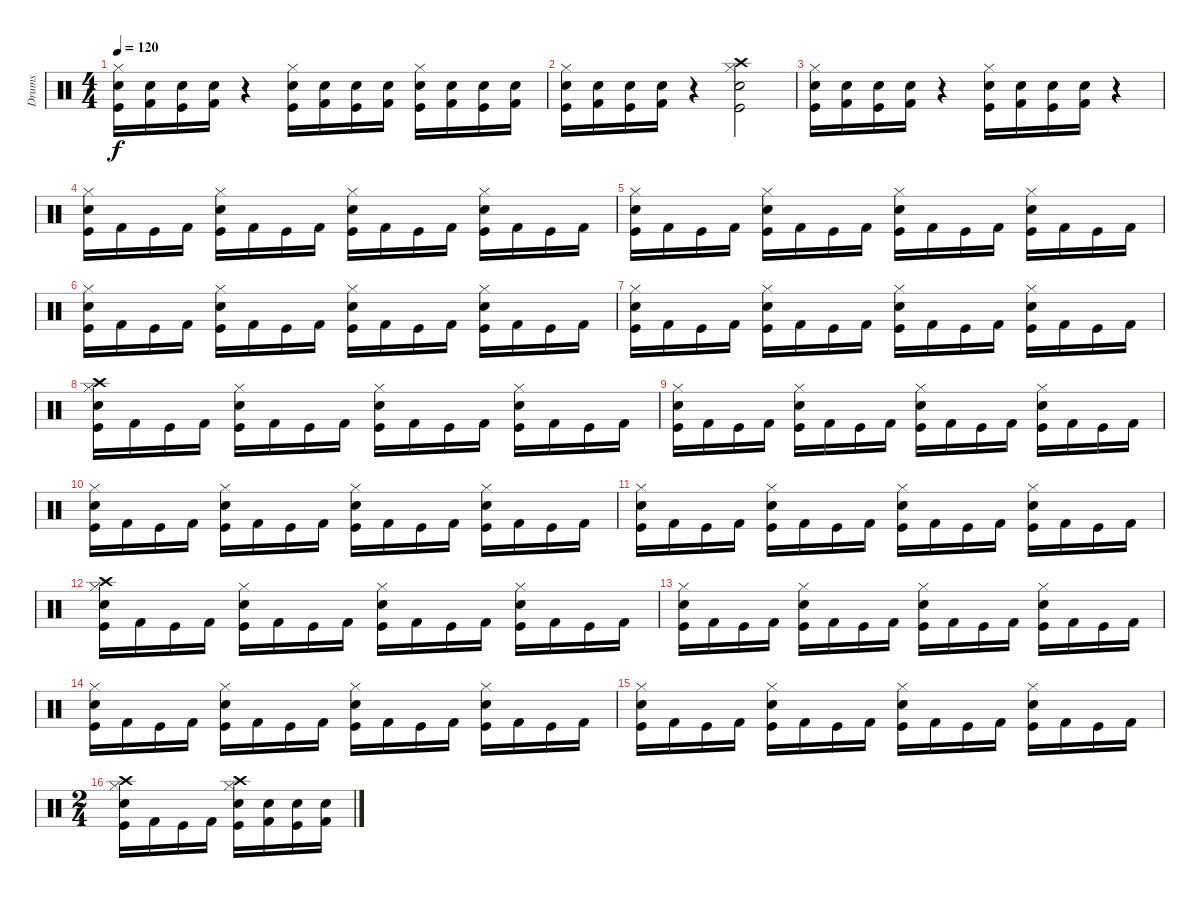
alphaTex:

\track ("Drums" "Drums") {instrument percussion}
\staff {score}
\articulation defaults
\ts (4 4)
\tempo 120
\clef neutral
\ks c
("Hi-Hat (closed)" "Snare (hit) 2" "Kick (hit)").16{dy f} ("Snare (hit) 2" "Kick (hit) 2").16 ("Snare (hit) 2" "Kick (hit)").16 ("Snare (hit) 2" "Kick (hit) 2").16 r.4 ("Hi-Hat (closed)" "Snare (hit) 2" "Kick (hit)").16 ("Snare (hit) 2" "Kick (hit) 2").16 ("Snare (hit) 2" "Kick (hit)").16 ("Snare (hit) 2" "Kick (hit) 2").16 ("Hi-Hat (closed)" "Electric Snare (hit)" "Kick (hit)").16 ("Electric Snare (hit)" "Kick (hit) 2").16 ("Electric Snare (hit)" "Kick (hit)").16 ("Electric Snare (hit)" "Kick (hit) 2").16 |
("Hi-Hat (closed)" "Snare (hit) 2" "Kick (hit)").16 ("Snare (hit) 2" "Kick (hit) 2").16 ("Snare (hit) 2" "Kick (hit)").16 ("Snare (hit) 2" "Kick (hit) 2").16 r.4 ("Hi-Hat (closed)" "Crash high (hit)" "Snare (hit) 2" "Kick (hit)").2 |
("Hi-Hat (closed)" "Snare (hit) 2" "Kick (hit)").16 ("Snare (hit) 2" "Kick (hit) 2").16 ("Snare (hit) 2" "Kick (hit)").16 ("Snare (hit) 2" "Kick (hit) 2").16 r.4 ("Hi-Hat (closed)" "Electric Snare (hit)" "Kick (hit)").16 ("Electric Snare (hit)" "Kick (hit) 2").16 ("Electric Snare (hit)" "Kick (hit)").16 ("Electric Snare (hit)" "Kick (hit) 2").16 r.4 |
("Hi-Hat (closed)" "Snare (hit) 2" "Kick (hit)").16 "Kick (hit) 2".16 "Kick (hit)".16 "Kick (hit) 2".16 ("Hi-Hat (closed)" "Snare (hit) 2" "Kick (hit)").16 "Kick (hit) 2".16 "Kick (hit)".16 "Kick (hit) 2".16 ("Hi-Hat (closed)" "Snare (hit) 2" "Kick (hit)").16 "Kick (hit) 2".16 "Kick (hit)".16 "Kick (hit) 2".16 ("Hi-Hat (closed)" "Snare (hit) 2" "Kick (hit)").16 "Kick (hit) 2".16 "Kick (hit)".16 "Kick (hit) 2".16 |
("Hi-Hat (closed)" "Snare (hit) 2" "Kick (hit)").16 "Kick (hit) 2".16 "Kick (hit)".16 "Kick (hit) 2".16 ("Hi-Hat (closed)" "Snare (hit) 2" "Kick (hit)").16 "Kick (hit) 2".16 "Kick (hit)".16 "Kick (hit) 2".16 ("Hi-Hat (closed)" "Snare (hit) 2" "Kick (hit)").16 "Kick (hit) 2".16 "Kick (hit)".16 "Kick (hit) 2".16 ("Hi-Hat (closed)" "Snare (hit) 2" "Kick (hit)").16 "Kick (hit) 2".16 "Kick (hit)".16 "Kick (hit) 2".16 |
("Hi-Hat (closed)" "Snare (hit) 2" "Kick (hit)").16 "Kick (hit) 2".16 "Kick (hit)".16 "Kick (hit) 2".16 ("Hi-Hat (closed)" "Snare (hit) 2" "Kick (hit)").16 "Kick (hit) 2".16 "Kick (hit)".16 "Kick (hit) 2".16 ("Hi-Hat (closed)" "Snare (hit) 2" "Kick (hit)").16 "Kick (hit) 2".16 "Kick (hit)".16 "Kick (hit) 2".16 ("Hi-Hat (closed)" "Snare (hit) 2" "Kick (hit)").16 "Kick (hit) 2".16 "Kick (hit)".16 "Kick (hit) 2".16 |
("Hi-Hat (closed)" "Snare (hit) 2" "Kick (hit)").16 "Kick (hit) 2".16 "Kick (hit)".16 "Kick (hit) 2".16 ("Hi-Hat (closed)" "Snare (hit) 2" "Kick (hit)").16 "Kick (hit) 2".16 "Kick (hit)".16 "Kick (hit) 2".16 ("Hi-Hat (closed)" "Snare (hit) 2" "Kick (hit)").16 "Kick (hit) 2".16 "Kick (hit)".16 "Kick (hit) 2".16 ("Hi-Hat (closed)" "Snare (hit) 2" "Kick (hit)").16 "Kick (hit) 2".16 "Kick (hit)".16 "Kick (hit) 2".16 |
("Hi-Hat (closed)" "Crash high (hit)" "Snare (hit) 2" "Kick (hit)").16 "Kick (hit) 2".16 "Kick (hit)".16 "Kick (hit) 2".16 ("Hi-Hat (closed)" "Snare (hit) 2" "Kick (hit)").16 "Kick (hit) 2".16 "Kick (hit)".16 "Kick (hit) 2".16 ("Hi-Hat (closed)" "Snare (hit) 2" "Kick (hit)").16 "Kick (hit) 2".16 "Kick (hit)".16 "Kick (hit) 2".16 ("Hi-Hat (closed)" "Snare (hit) 2" "Kick (hit)").16 "Kick (hit) 2".16 "Kick (hit)".16 "Kick (hit) 2".16 |
("Hi-Hat (closed)" "Snare (hit) 2" "Kick (hit)").16 "Kick (hit) 2".16 "Kick (hit)".16 "Kick (hit) 2".16 ("Hi-Hat (closed)" "Snare (hit) 2" "Kick (hit)").16 "Kick (hit) 2".16 "Kick (hit)".16 "Kick (hit) 2".16 ("Hi-Hat (closed)" "Snare (hit) 2" "Kick (hit)").16 "Kick (hit) 2".16 "Kick (hit)".16 "Kick (hit) 2".16 ("Hi-Hat (closed)" "Snare (hit) 2" "Kick (hit)").16 "Kick (hit) 2".16 "Kick (hit)".16 "Kick (hit) 2".16 |
("Hi-Hat (closed)" "Snare (hit) 2" "Kick (hit)").16 "Kick (hit) 2".16 "Kick (hit)".16 "Kick (hit) 2".16 ("Hi-Hat (closed)" "Snare (hit) 2" "Kick (hit)").16 "Kick (hit) 2".16 "Kick (hit)".16 "Kick (hit) 2".16 ("Hi-Hat (closed)" "Snare (hit) 2" "Kick (hit)").16 "Kick (hit) 2".16 "Kick (hit)".16 "Kick (hit) 2".16 ("Hi-Hat (closed)" "Snare (hit) 2" "Kick (hit)").16 "Kick (hit) 2".16 "Kick (hit)".16 "Kick (hit) 2".16 |
("Hi-Hat (closed)" "Snare (hit) 2" "Kick (hit)").16 "Kick (hit) 2".16 "Kick (hit)".16 "Kick (hit) 2".16 ("Hi-Hat (closed)" "Snare (hit) 2" "Kick (hit)").16 "Kick (hit) 2".16 "Kick (hit)".16 "Kick (hit) 2".16 ("Hi-Hat (closed)" "Snare (hit) 2" "Kick (hit)").16 "Kick (hit) 2".16 "Kick (hit)".16 "Kick (hit) 2".16 ("Hi-Hat (closed)" "Snare (hit) 2" "Kick (hit)").16 "Kick (hit) 2".16 "Kick (hit)".16 "Kick (hit) 2".16 |
("Hi-Hat (closed)" "Crash high (hit)" "Snare (hit) 2" "Kick (hit)").16 "Kick (hit) 2".16 "Kick (hit)".16 "Kick (hit) 2".16 ("Hi-Hat (closed)" "Snare (hit) 2" "Kick (hit)").16 "Kick (hit) 2".16 "Kick (hit)".16 "Kick (hit) 2".16 ("Hi-Hat (closed)" "Snare (hit) 2" "Kick (hit)").16 "Kick (hit) 2".16 "Kick (hit)".16 "Kick (hit) 2".16 ("Hi-Hat (closed)" "Snare (hit) 2" "Kick (hit)").16 "Kick (hit) 2".16 "Kick (hit)".16 "Kick (hit) 2".16 |
("Hi-Hat (closed)" "Snare (hit) 2" "Kick (hit)").16 "Kick (hit) 2".16 "Kick (hit)".16 "Kick (hit) 2".16 ("Hi-Hat (closed)" "Snare (hit) 2" "Kick (hit)").16 "Kick (hit) 2".16 "Kick (hit)".16 "Kick (hit) 2".16 ("Hi-Hat (closed)" "Snare (hit) 2" "Kick (hit)").16 "Kick (hit) 2".16 "Kick (hit)".16 "Kick (hit) 2".16 ("Hi-Hat (closed)" "Snare (hit) 2" "Kick (hit)").16 "Kick (hit) 2".16 "Kick (hit)".16 "Kick (hit) 2".16 |
("Hi-Hat (closed)" "Snare (hit) 2" "Kick (hit)").16 "Kick (hit) 2".16 "Kick (hit)".16 "Kick (hit) 2".16 ("Hi-Hat (closed)" "Snare (hit) 2" "Kick (hit)").16 "Kick (hit) 2".16 "Kick (hit)".16 "Kick (hit) 2".16 ("Hi-Hat (closed)" "Snare (hit) 2" "Kick (hit)").16 "Kick (hit) 2".16 "Kick (hit)".16 "Kick (hit) 2".16 ("Hi-Hat (closed)" "Snare (hit) 2" "Kick (hit)").16 "Kick (hit) 2".16 "Kick (hit)".16 "Kick (hit) 2".16 |
("Hi-Hat (closed)" "Snare (hit) 2" "Kick (hit)").16 "Kick (hit) 2".16 "Kick (hit)".16 "Kick (hit) 2".16 ("Hi-Hat (closed)" "Snare (hit) 2" "Kick (hit)").16 "Kick (hit) 2".16 "Kick (hit)".16 "Kick (hit) 2".16 ("Hi-Hat (closed)" "Snare (hit) 2" "Kick (hit)").16 "Kick (hit) 2".16 "Kick (hit)".16 "Kick (hit) 2".16 ("Hi-Hat (closed)" "Snare (hit) 2" "Kick (hit)").16 "Kick (hit) 2".16 "Kick (hit)".16 "Kick (hit) 2".16 |
\ts (2 4)
("Hi-Hat (closed)" "Crash high (hit)" "Snare (hit) 2" "Kick (hit)").16 "Kick (hit) 2".16 "Kick (hit)".16 "Kick (hit) 2".16 ("Hi-Hat (closed)" "Crash high (hit)" "Snare (hit) 2" "Kick (hit)").16 ("Snare (hit) 2" "Kick (hit) 2").16 ("Snare (hit) 2" "Kick (hit)").16 ("Snare (hit) 2" "Kick (hit) 2").16
